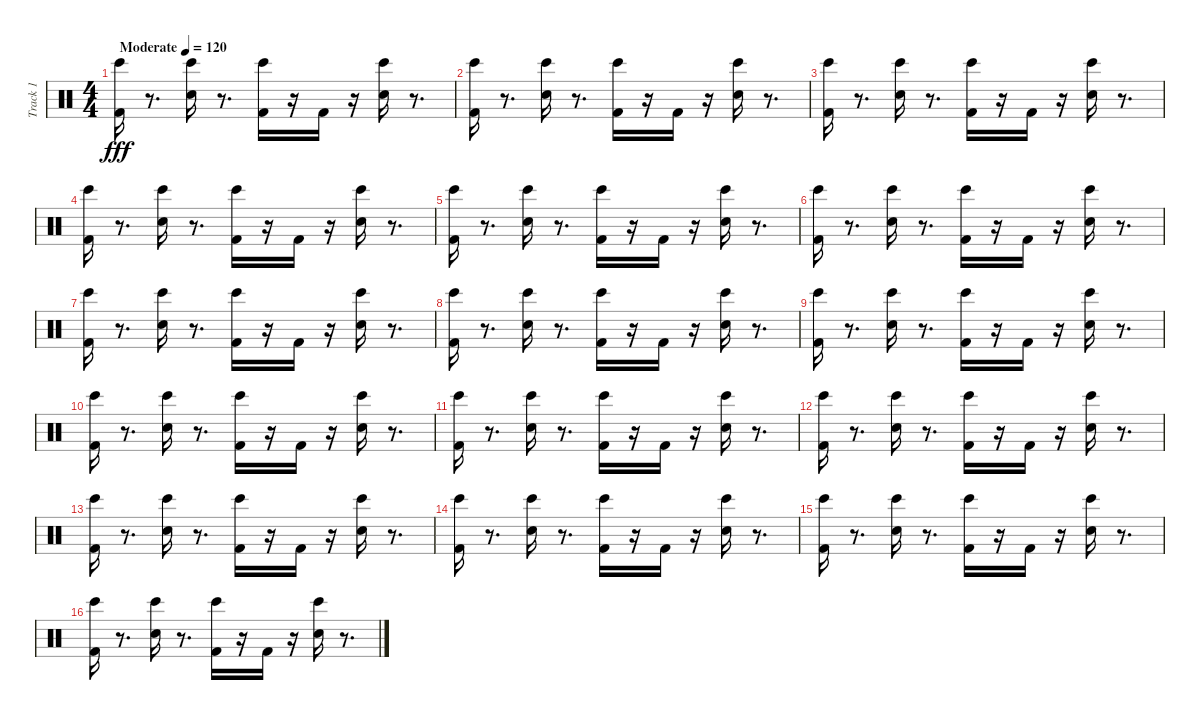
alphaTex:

\track ("Track 1" "Track 1") {instrument percussion}
\staff {score}
\articulation defaults
\ts (4 4)
\tempo (120 "Moderate")
\clef neutral
\ks c
("Kick (hit) 2" "Bongo High (hit)").16{dy fff} r.8{d} ("Snare (hit) 2" "Bongo High (hit)").16 r.8{d} ("Kick (hit) 2" "Bongo High (hit)").16 r.16 "Kick (hit) 2".16 r.16 ("Snare (hit) 2" "Bongo High (hit)").16 r.8{d} |
("Kick (hit) 2" "Bongo High (hit)").16 r.8{d} ("Snare (hit) 2" "Bongo High (hit)").16 r.8{d} ("Kick (hit) 2" "Bongo High (hit)").16 r.16 "Kick (hit) 2".16 r.16 ("Snare (hit) 2" "Bongo High (hit)").16 r.8{d} |
("Kick (hit) 2" "Bongo High (hit)").16 r.8{d} ("Snare (hit) 2" "Bongo High (hit)").16 r.8{d} ("Kick (hit) 2" "Bongo High (hit)").16 r.16 "Kick (hit) 2".16 r.16 ("Snare (hit) 2" "Bongo High (hit)").16 r.8{d} |
("Kick (hit) 2" "Bongo High (hit)").16 r.8{d} ("Snare (hit) 2" "Bongo High (hit)").16 r.8{d} ("Kick (hit) 2" "Bongo High (hit)").16 r.16 "Kick (hit) 2".16 r.16 ("Snare (hit) 2" "Bongo High (hit)").16 r.8{d} |
("Kick (hit) 2" "Bongo High (hit)").16 r.8{d} ("Snare (hit) 2" "Bongo High (hit)").16 r.8{d} ("Kick (hit) 2" "Bongo High (hit)").16 r.16 "Kick (hit) 2".16 r.16 ("Snare (hit) 2" "Bongo High (hit)").16 r.8{d} |
("Kick (hit) 2" "Bongo High (hit)").16 r.8{d} ("Snare (hit) 2" "Bongo High (hit)").16 r.8{d} ("Kick (hit) 2" "Bongo High (hit)").16 r.16 "Kick (hit) 2".16 r.16 ("Snare (hit) 2" "Bongo High (hit)").16 r.8{d} |
("Kick (hit) 2" "Bongo High (hit)").16 r.8{d} ("Snare (hit) 2" "Bongo High (hit)").16 r.8{d} ("Kick (hit) 2" "Bongo High (hit)").16 r.16 "Kick (hit) 2".16 r.16 ("Snare (hit) 2" "Bongo High (hit)").16 r.8{d} |
("Kick (hit) 2" "Bongo High (hit)").16 r.8{d} ("Snare (hit) 2" "Bongo High (hit)").16 r.8{d} ("Kick (hit) 2" "Bongo High (hit)").16 r.16 "Kick (hit) 2".16 r.16 ("Snare (hit) 2" "Bongo High (hit)").16 r.8{d} |
("Kick (hit) 2" "Bongo High (hit)").16 r.8{d} ("Snare (hit) 2" "Bongo High (hit)").16 r.8{d} ("Kick (hit) 2" "Bongo High (hit)").16 r.16 "Kick (hit) 2".16 r.16 ("Snare (hit) 2" "Bongo High (hit)").16 r.8{d} |
("Kick (hit) 2" "Bongo High (hit)").16 r.8{d} ("Snare (hit) 2" "Bongo High (hit)").16 r.8{d} ("Kick (hit) 2" "Bongo High (hit)").16 r.16 "Kick (hit) 2".16 r.16 ("Snare (hit) 2" "Bongo High (hit)").16 r.8{d} |
("Kick (hit) 2" "Bongo High (hit)").16 r.8{d} ("Snare (hit) 2" "Bongo High (hit)").16 r.8{d} ("Kick (hit) 2" "Bongo High (hit)").16 r.16 "Kick (hit) 2".16 r.16 ("Snare (hit) 2" "Bongo High (hit)").16 r.8{d} |
("Kick (hit) 2" "Bongo High (hit)").16 r.8{d} ("Snare (hit) 2" "Bongo High (hit)").16 r.8{d} ("Kick (hit) 2" "Bongo High (hit)").16 r.16 "Kick (hit) 2".16 r.16 ("Snare (hit) 2" "Bongo High (hit)").16 r.8{d} |
("Kick (hit) 2" "Bongo High (hit)").16 r.8{d} ("Snare (hit) 2" "Bongo High (hit)").16 r.8{d} ("Kick (hit) 2" "Bongo High (hit)").16 r.16 "Kick (hit) 2".16 r.16 ("Snare (hit) 2" "Bongo High (hit)").16 r.8{d} |
("Kick (hit) 2" "Bongo High (hit)").16 r.8{d} ("Snare (hit) 2" "Bongo High (hit)").16 r.8{d} ("Kick (hit) 2" "Bongo High (hit)").16 r.16 "Kick (hit) 2".16 r.16 ("Snare (hit) 2" "Bongo High (hit)").16 r.8{d} |
("Kick (hit) 2" "Bongo High (hit)").16 r.8{d} ("Snare (hit) 2" "Bongo High (hit)").16 r.8{d} ("Kick (hit) 2" "Bongo High (hit)").16 r.16 "Kick (hit) 2".16 r.16 ("Snare (hit) 2" "Bongo High (hit)").16 r.8{d} |
("Kick (hit) 2" "Bongo High (hit)").16 r.8{d} ("Snare (hit) 2" "Bongo High (hit)").16 r.8{d} ("Kick (hit) 2" "Bongo High (hit)").16 r.16 "Kick (hit) 2".16 r.16 ("Snare (hit) 2" "Bongo High (hit)").16 r.8{d}
